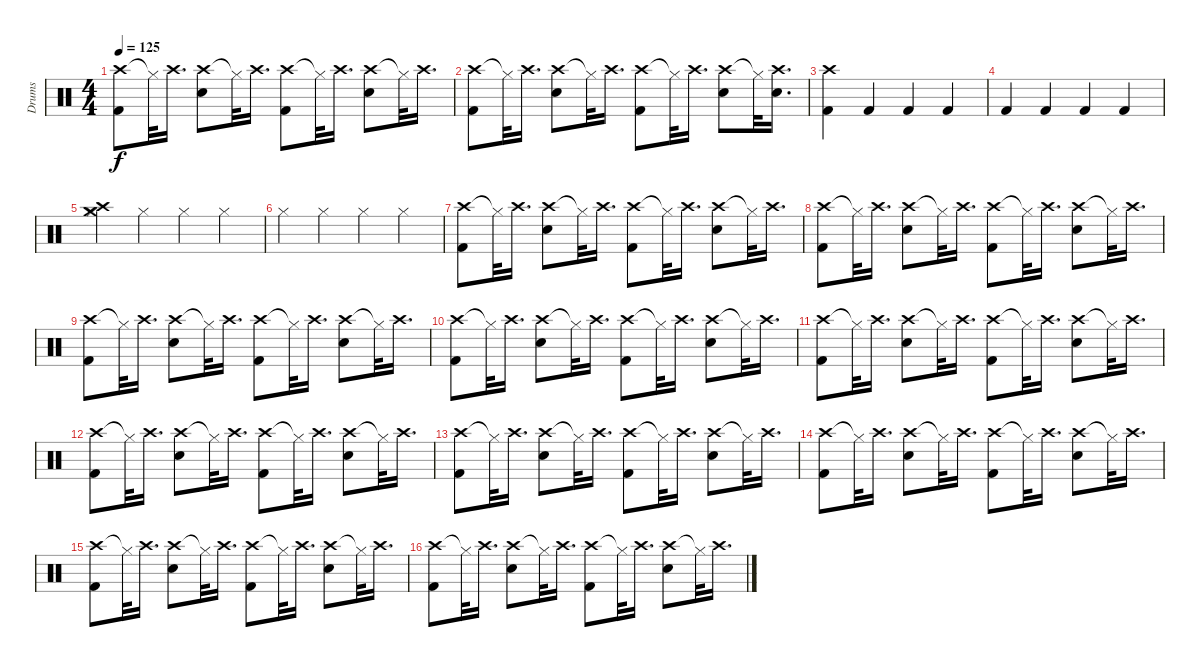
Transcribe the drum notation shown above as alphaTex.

\track ("Drums" "Drums") {instrument percussion}
\staff {score}
\articulation defaults
\ts (4 4)
\tempo 125
\clef neutral
\ks c
("Crash high (hit)" "Kick (hit) 2").8{dy f} "Hi-Hat (closed)"{t}.32 "Crash high (hit)".16{d} ("Crash high (hit)" "Electric Snare (hit)").8 "Hi-Hat (closed)"{t}.32 "Crash high (hit)".16{d} ("Crash high (hit)" "Kick (hit) 2").8 "Hi-Hat (closed)"{t}.32 "Crash high (hit)".16{d} ("Crash high (hit)" "Electric Snare (hit)").8 "Hi-Hat (closed)"{t}.32 "Crash high (hit)".16{d} |
("Crash high (hit)" "Kick (hit) 2").8 "Hi-Hat (closed)"{t}.32 "Crash high (hit)".16{d} ("Crash high (hit)" "Electric Snare (hit)").8 "Hi-Hat (closed)"{t}.32 "Crash high (hit)".16{d} ("Crash high (hit)" "Kick (hit) 2").8 "Hi-Hat (closed)"{t}.32 "Crash high (hit)".16{d} ("Crash high (hit)" "Electric Snare (hit)").8 "Hi-Hat (closed)"{t}.32 ("Crash high (hit)" "Electric Snare (hit)").16{d} |
("Crash high (hit)" "Kick (hit) 2").4 "Kick (hit) 2".4 "Kick (hit) 2".4 "Kick (hit) 2".4 |
"Kick (hit) 2".4 "Kick (hit) 2".4 "Kick (hit) 2".4 "Kick (hit) 2".4 |
("Crash high (hit)" "Crash medium (hit)" "Hi-Hat (closed)").4 "Hi-Hat (closed)".4 "Hi-Hat (closed)".4 "Hi-Hat (closed)".4 |
"Hi-Hat (closed)".4 "Hi-Hat (closed)".4 "Hi-Hat (closed)".4 "Hi-Hat (closed)".4 |
("Crash high (hit)" "Kick (hit) 2").8 "Hi-Hat (closed)"{t}.32 "Crash high (hit)".16{d} ("Crash high (hit)" "Electric Snare (hit)").8 "Hi-Hat (closed)"{t}.32 "Crash high (hit)".16{d} ("Crash high (hit)" "Kick (hit) 2").8 "Hi-Hat (closed)"{t}.32 "Crash high (hit)".16{d} ("Crash high (hit)" "Electric Snare (hit)").8 "Hi-Hat (closed)"{t}.32 "Crash high (hit)".16{d} |
("Crash high (hit)" "Kick (hit) 2").8 "Hi-Hat (closed)"{t}.32 "Crash high (hit)".16{d} ("Crash high (hit)" "Electric Snare (hit)").8 "Hi-Hat (closed)"{t}.32 "Crash high (hit)".16{d} ("Crash high (hit)" "Kick (hit) 2").8 "Hi-Hat (closed)"{t}.32 "Crash high (hit)".16{d} ("Crash high (hit)" "Electric Snare (hit)").8 "Hi-Hat (closed)"{t}.32 "Crash high (hit)".16{d} |
("Crash high (hit)" "Kick (hit) 2").8 "Hi-Hat (closed)"{t}.32 "Crash high (hit)".16{d} ("Crash high (hit)" "Electric Snare (hit)").8 "Hi-Hat (closed)"{t}.32 "Crash high (hit)".16{d} ("Crash high (hit)" "Kick (hit) 2").8 "Hi-Hat (closed)"{t}.32 "Crash high (hit)".16{d} ("Crash high (hit)" "Electric Snare (hit)").8 "Hi-Hat (closed)"{t}.32 "Crash high (hit)".16{d} |
("Crash high (hit)" "Kick (hit) 2").8 "Hi-Hat (closed)"{t}.32 "Crash high (hit)".16{d} ("Crash high (hit)" "Electric Snare (hit)").8 "Hi-Hat (closed)"{t}.32 "Crash high (hit)".16{d} ("Crash high (hit)" "Kick (hit) 2").8 "Hi-Hat (closed)"{t}.32 "Crash high (hit)".16{d} ("Crash high (hit)" "Electric Snare (hit)").8 "Hi-Hat (closed)"{t}.32 "Crash high (hit)".16{d} |
("Crash high (hit)" "Kick (hit) 2").8 "Hi-Hat (closed)"{t}.32 "Crash high (hit)".16{d} ("Crash high (hit)" "Electric Snare (hit)").8 "Hi-Hat (closed)"{t}.32 "Crash high (hit)".16{d} ("Crash high (hit)" "Kick (hit) 2").8 "Hi-Hat (closed)"{t}.32 "Crash high (hit)".16{d} ("Crash high (hit)" "Electric Snare (hit)").8 "Hi-Hat (closed)"{t}.32 "Crash high (hit)".16{d} |
("Crash high (hit)" "Kick (hit) 2").8 "Hi-Hat (closed)"{t}.32 "Crash high (hit)".16{d} ("Crash high (hit)" "Electric Snare (hit)").8 "Hi-Hat (closed)"{t}.32 "Crash high (hit)".16{d} ("Crash high (hit)" "Kick (hit) 2").8 "Hi-Hat (closed)"{t}.32 "Crash high (hit)".16{d} ("Crash high (hit)" "Electric Snare (hit)").8 "Hi-Hat (closed)"{t}.32 "Crash high (hit)".16{d} |
("Crash high (hit)" "Kick (hit) 2").8 "Hi-Hat (closed)"{t}.32 "Crash high (hit)".16{d} ("Crash high (hit)" "Electric Snare (hit)").8 "Hi-Hat (closed)"{t}.32 "Crash high (hit)".16{d} ("Crash high (hit)" "Kick (hit) 2").8 "Hi-Hat (closed)"{t}.32 "Crash high (hit)".16{d} ("Crash high (hit)" "Electric Snare (hit)").8 "Hi-Hat (closed)"{t}.32 "Crash high (hit)".16{d} |
("Crash high (hit)" "Kick (hit) 2").8 "Hi-Hat (closed)"{t}.32 "Crash high (hit)".16{d} ("Crash high (hit)" "Electric Snare (hit)").8 "Hi-Hat (closed)"{t}.32 "Crash high (hit)".16{d} ("Crash high (hit)" "Kick (hit) 2").8 "Hi-Hat (closed)"{t}.32 "Crash high (hit)".16{d} ("Crash high (hit)" "Electric Snare (hit)").8 "Hi-Hat (closed)"{t}.32 "Crash high (hit)".16{d} |
("Crash high (hit)" "Kick (hit) 2").8 "Hi-Hat (closed)"{t}.32 "Crash high (hit)".16{d} ("Crash high (hit)" "Electric Snare (hit)").8 "Hi-Hat (closed)"{t}.32 "Crash high (hit)".16{d} ("Crash high (hit)" "Kick (hit) 2").8 "Hi-Hat (closed)"{t}.32 "Crash high (hit)".16{d} ("Crash high (hit)" "Electric Snare (hit)").8 "Hi-Hat (closed)"{t}.32 "Crash high (hit)".16{d} |
("Crash high (hit)" "Kick (hit) 2").8 "Hi-Hat (closed)"{t}.32 "Crash high (hit)".16{d} ("Crash high (hit)" "Electric Snare (hit)").8 "Hi-Hat (closed)"{t}.32 "Crash high (hit)".16{d} ("Crash high (hit)" "Kick (hit) 2").8 "Hi-Hat (closed)"{t}.32 "Crash high (hit)".16{d} ("Crash high (hit)" "Electric Snare (hit)").8 "Hi-Hat (closed)"{t}.32 "Crash high (hit)".16{d}
